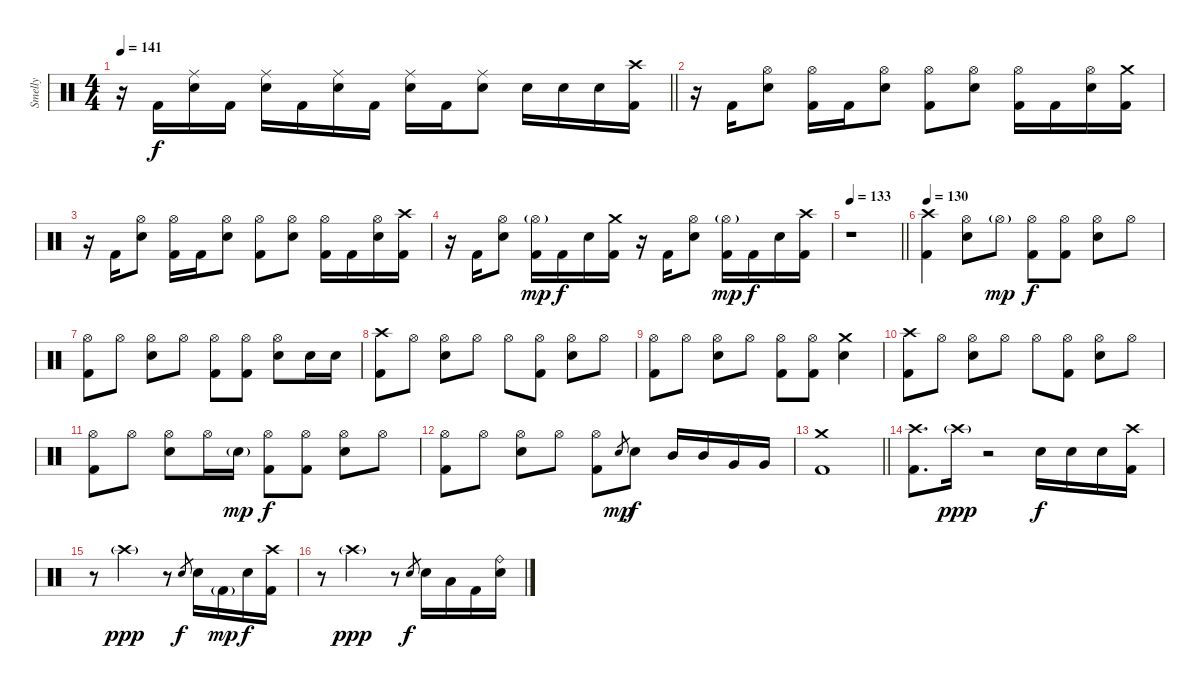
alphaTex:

\track ("Smelly" "Smelly") {instrument percussion}
\staff {score}
\articulation defaults
\ts (4 4)
\tempo 141
\clef neutral
\barLineRight lightlight
\ks c
r.16{dy f} "Kick (hit) 2".16 ("Ride (middle)" "Electric Snare (hit)").16 "Kick (hit) 2".16 ("Ride (middle)" "Electric Snare (hit)").16 "Kick (hit) 2".16 ("Ride (middle)" "Electric Snare (hit)").16 "Kick (hit) 2".16 ("Ride (middle)" "Electric Snare (hit)").16 "Kick (hit) 2".16 ("Ride (middle)" "Electric Snare (hit)").8 "Electric Snare (hit)".16 "Electric Snare (hit)".16 "Electric Snare (hit)".16 ("Crash high (hit)" "Kick (hit) 2").16 |
\section ("" "")
r.16 "Kick (hit) 2".16 ("Hi-Hat (open)" "Electric Snare (hit)").8 ("Hi-Hat (open)" "Kick (hit) 2").16 "Kick (hit) 2".16 ("Hi-Hat (open)" "Electric Snare (hit)").8 ("Hi-Hat (open)" "Kick (hit) 2").8 ("Hi-Hat (open)" "Electric Snare (hit)").8 ("Hi-Hat (open)" "Kick (hit) 2").16 "Kick (hit) 2".16 ("Hi-Hat (open)" "Electric Snare (hit)").16 ("Crash medium (hit)" "Kick (hit) 2").16 |
r.16 "Kick (hit) 2".16 ("Hi-Hat (open)" "Electric Snare (hit)").8 ("Hi-Hat (open)" "Kick (hit) 2").16 "Kick (hit) 2".16 ("Hi-Hat (open)" "Electric Snare (hit)").8 ("Hi-Hat (open)" "Kick (hit) 2").8 ("Hi-Hat (open)" "Electric Snare (hit)").8 ("Hi-Hat (open)" "Kick (hit) 2").16 "Kick (hit) 2".16 ("Hi-Hat (open)" "Electric Snare (hit)").16 ("Crash high (hit)" "Kick (hit) 2").16 |
r.16 "Kick (hit) 2".16 ("Hi-Hat (open)" "Electric Snare (hit)").8 ("Hi-Hat (open)"{g} "Kick (hit) 2").16{dy mp} "Kick (hit) 2".16{dy f} "Electric Snare (hit)".16 ("Crash medium (hit)" "Kick (hit) 2").16 r.16 "Kick (hit) 2".16 ("Hi-Hat (open)" "Electric Snare (hit)").8 ("Hi-Hat (open)"{g} "Kick (hit) 2").16{dy mp} "Kick (hit) 2".16{dy f} "Electric Snare (hit)".16 ("Crash high (hit)" "Kick (hit) 2").16 |
\tempo 133
\barLineRight lightlight
r.1 |
\section ("" "")
\tempo 130
("Crash high (hit)" "Kick (hit) 2").4 ("Hi-Hat (open)" "Electric Snare (hit)").8 "Hi-Hat (open)"{g}.8{dy mp} ("Hi-Hat (open)" "Kick (hit) 2").8{dy f} ("Hi-Hat (open)" "Kick (hit) 2").8 ("Hi-Hat (open)" "Electric Snare (hit)").8 "Hi-Hat (open)".8 |
("Hi-Hat (open)" "Kick (hit) 2").8 "Hi-Hat (open)".8 ("Hi-Hat (open)" "Electric Snare (hit)").8 "Hi-Hat (open)".8 ("Hi-Hat (open)" "Kick (hit) 2").8 ("Hi-Hat (open)" "Kick (hit) 2").8 ("Hi-Hat (open)" "Electric Snare (hit)").8 "Electric Snare (hit)".16 "Electric Snare (hit)".16 |
("Crash high (hit)" "Kick (hit) 2").8 "Hi-Hat (open)".8 ("Hi-Hat (open)" "Electric Snare (hit)").8 "Hi-Hat (open)".8 "Hi-Hat (open)".8 ("Hi-Hat (open)" "Kick (hit) 2").8 ("Hi-Hat (open)" "Electric Snare (hit)").8 "Hi-Hat (open)".8 |
("Hi-Hat (open)" "Kick (hit) 2").8 "Hi-Hat (open)".8 ("Hi-Hat (open)" "Electric Snare (hit)").8 "Hi-Hat (open)".8 ("Hi-Hat (open)" "Kick (hit) 2").8 ("Hi-Hat (open)" "Kick (hit) 2").8 ("Crash medium (hit)" "Electric Snare (hit)").4 |
("Crash high (hit)" "Kick (hit) 2").8 "Hi-Hat (open)".8 ("Hi-Hat (open)" "Electric Snare (hit)").8 "Hi-Hat (open)".8 "Hi-Hat (open)".8 ("Hi-Hat (open)" "Kick (hit) 2").8 ("Hi-Hat (open)" "Electric Snare (hit)").8 "Hi-Hat (open)".8 |
("Hi-Hat (open)" "Kick (hit) 2").8 "Hi-Hat (open)".8 ("Hi-Hat (open)" "Electric Snare (hit)").8 "Hi-Hat (open)".16 "Electric Snare (hit)"{g}.16{dy mp} ("Hi-Hat (open)" "Kick (hit) 2").8{dy f} ("Hi-Hat (open)" "Kick (hit) 2").8 ("Hi-Hat (open)" "Electric Snare (hit)").8 "Hi-Hat (open)".8 |
("Hi-Hat (open)" "Kick (hit) 2").8 "Hi-Hat (open)".8 ("Hi-Hat (open)" "Electric Snare (hit)").8 "Hi-Hat (open)".8 ("Hi-Hat (open)" "Kick (hit) 2").8 "Electric Snare (hit)".8{gr dy mp} "Electric Snare (hit)".8{dy f} "Mid Tom (hit)".16 "Mid Tom (hit)".16 "Very Low Tom (hit)".16 "Very Low Tom (hit)".16 |
\barLineRight lightlight
("Crash medium (hit)" "Kick (hit) 2").1 |
\section ("" "")
("Crash high (hit)" "Kick (hit) 2").8{d} "Crash high (hit)"{g}.16{dy ppp} r.2 "Electric Snare (hit)".16{dy f} "Electric Snare (hit)".16 "Electric Snare (hit)".16 ("Crash high (hit)" "Kick (hit) 2").16 |
r.8 "Crash high (hit)"{g}.2{dy ppp} r.8 "Electric Snare (hit)".8{gr dy f} "Electric Snare (hit)".16 "Kick (hit) 2"{g}.16{dy mp} "Electric Snare (hit)".16{dy f} ("Crash high (hit)" "Kick (hit) 2").16 |
r.8 "Crash high (hit)"{g}.2{dy ppp} r.8 "Electric Snare (hit)".8{gr dy f} "Electric Snare (hit)".16 "Low Floor Tom (hit)".16 "Kick (hit) 2".16 ("Ride (bell)" "Electric Snare (hit)").16
